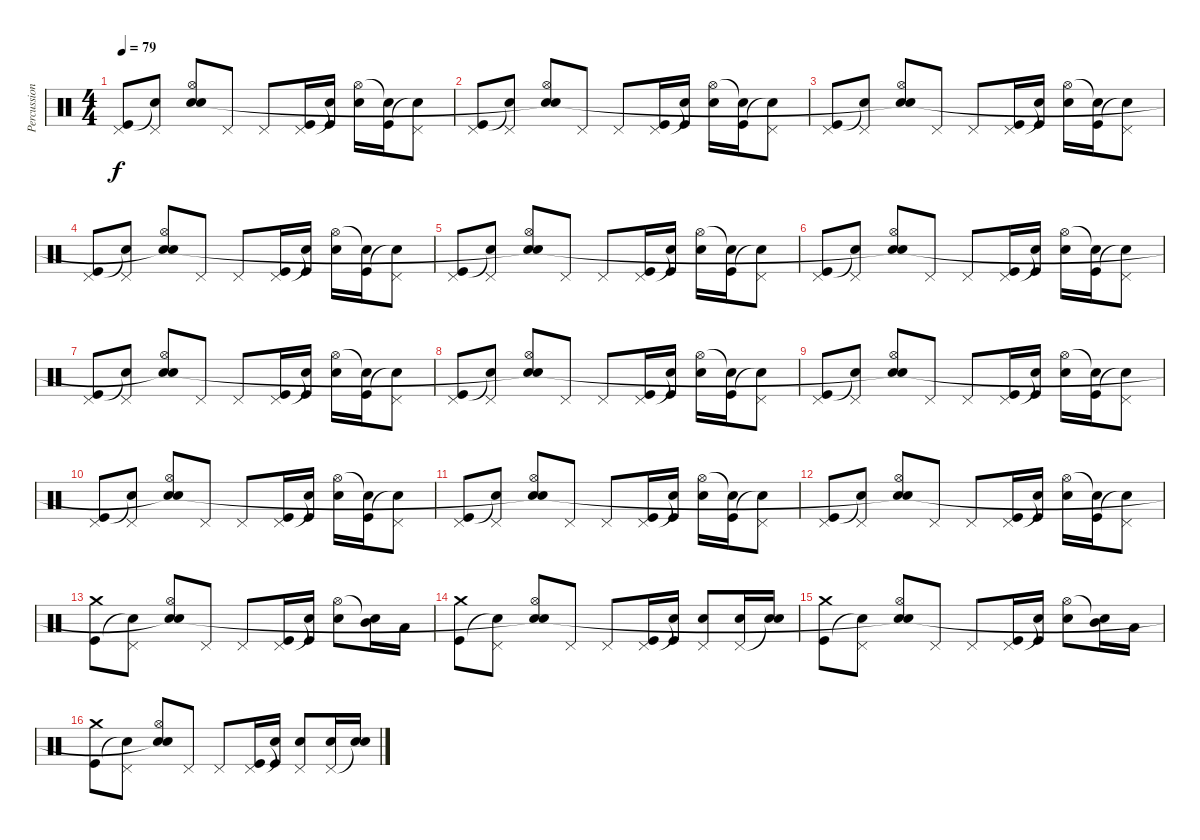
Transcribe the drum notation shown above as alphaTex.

\track ("Percussion" "Percussion") {instrument percussion}
\staff {score}
\articulation defaults
\ts (4 4)
\tempo 79
\clef neutral
\ks c
("Pedal Hi-Hat (hit)" "Kick (hit)").8{dy f} ("Pedal Hi-Hat (hit)" "Snare (hit)"{t}).8 ("Hi-Hat (open)" "Electric Snare (hit)" "Snare (hit)"{t}).8 "Pedal Hi-Hat (hit)".8 "Pedal Hi-Hat (hit)".8 ("Pedal Hi-Hat (hit)" "Kick (hit)").16 ("Snare (hit)"{t} "Kick (hit)").16 ("Hi-Hat (open)" "Electric Snare (hit)").16 ("Snare (hit)"{t} "Kick (hit)").16 ("Pedal Hi-Hat (hit)" "Snare (hit)"{t}).8 |
("Pedal Hi-Hat (hit)" "Kick (hit)").8 ("Pedal Hi-Hat (hit)" "Snare (hit)"{t}).8 ("Hi-Hat (open)" "Electric Snare (hit)" "Snare (hit)"{t}).8 "Pedal Hi-Hat (hit)".8 "Pedal Hi-Hat (hit)".8 ("Pedal Hi-Hat (hit)" "Kick (hit)").16 ("Snare (hit)"{t} "Kick (hit)").16 ("Hi-Hat (open)" "Electric Snare (hit)").16 ("Snare (hit)"{t} "Kick (hit)").16 ("Pedal Hi-Hat (hit)" "Snare (hit)"{t}).8 |
("Pedal Hi-Hat (hit)" "Kick (hit)").8 ("Pedal Hi-Hat (hit)" "Snare (hit)"{t}).8 ("Hi-Hat (open)" "Electric Snare (hit)" "Snare (hit)"{t}).8 "Pedal Hi-Hat (hit)".8 "Pedal Hi-Hat (hit)".8 ("Pedal Hi-Hat (hit)" "Kick (hit)").16 ("Snare (hit)"{t} "Kick (hit)").16 ("Hi-Hat (open)" "Electric Snare (hit)").16 ("Snare (hit)"{t} "Kick (hit)").16 ("Pedal Hi-Hat (hit)" "Snare (hit)"{t}).8 |
("Pedal Hi-Hat (hit)" "Kick (hit)").8 ("Pedal Hi-Hat (hit)" "Snare (hit)"{t}).8 ("Hi-Hat (open)" "Electric Snare (hit)" "Snare (hit)"{t}).8 "Pedal Hi-Hat (hit)".8 "Pedal Hi-Hat (hit)".8 ("Pedal Hi-Hat (hit)" "Kick (hit)").16 ("Snare (hit)"{t} "Kick (hit)").16 ("Hi-Hat (open)" "Electric Snare (hit)").16 ("Snare (hit)"{t} "Kick (hit)").16 ("Pedal Hi-Hat (hit)" "Snare (hit)"{t}).8 |
("Pedal Hi-Hat (hit)" "Kick (hit)").8 ("Pedal Hi-Hat (hit)" "Snare (hit)"{t}).8 ("Hi-Hat (open)" "Electric Snare (hit)" "Snare (hit)"{t}).8 "Pedal Hi-Hat (hit)".8 "Pedal Hi-Hat (hit)".8 ("Pedal Hi-Hat (hit)" "Kick (hit)").16 ("Snare (hit)"{t} "Kick (hit)").16 ("Hi-Hat (open)" "Electric Snare (hit)").16 ("Snare (hit)"{t} "Kick (hit)").16 ("Pedal Hi-Hat (hit)" "Snare (hit)"{t}).8 |
("Pedal Hi-Hat (hit)" "Kick (hit)").8 ("Pedal Hi-Hat (hit)" "Snare (hit)"{t}).8 ("Hi-Hat (open)" "Electric Snare (hit)" "Snare (hit)"{t}).8 "Pedal Hi-Hat (hit)".8 "Pedal Hi-Hat (hit)".8 ("Pedal Hi-Hat (hit)" "Kick (hit)").16 ("Snare (hit)"{t} "Kick (hit)").16 ("Hi-Hat (open)" "Electric Snare (hit)").16 ("Snare (hit)"{t} "Kick (hit)").16 ("Pedal Hi-Hat (hit)" "Snare (hit)"{t}).8 |
("Pedal Hi-Hat (hit)" "Kick (hit)").8 ("Pedal Hi-Hat (hit)" "Snare (hit)"{t}).8 ("Hi-Hat (open)" "Electric Snare (hit)" "Snare (hit)"{t}).8 "Pedal Hi-Hat (hit)".8 "Pedal Hi-Hat (hit)".8 ("Pedal Hi-Hat (hit)" "Kick (hit)").16 ("Snare (hit)"{t} "Kick (hit)").16 ("Hi-Hat (open)" "Electric Snare (hit)").16 ("Snare (hit)"{t} "Kick (hit)").16 ("Pedal Hi-Hat (hit)" "Snare (hit)"{t}).8 |
("Pedal Hi-Hat (hit)" "Kick (hit)").8 ("Pedal Hi-Hat (hit)" "Snare (hit)"{t}).8 ("Hi-Hat (open)" "Electric Snare (hit)" "Snare (hit)"{t}).8 "Pedal Hi-Hat (hit)".8 "Pedal Hi-Hat (hit)".8 ("Pedal Hi-Hat (hit)" "Kick (hit)").16 ("Snare (hit)"{t} "Kick (hit)").16 ("Hi-Hat (open)" "Electric Snare (hit)").16 ("Snare (hit)"{t} "Kick (hit)").16 ("Pedal Hi-Hat (hit)" "Snare (hit)"{t}).8 |
("Pedal Hi-Hat (hit)" "Kick (hit)").8 ("Pedal Hi-Hat (hit)" "Snare (hit)"{t}).8 ("Hi-Hat (open)" "Electric Snare (hit)" "Snare (hit)"{t}).8 "Pedal Hi-Hat (hit)".8 "Pedal Hi-Hat (hit)".8 ("Pedal Hi-Hat (hit)" "Kick (hit)").16 ("Snare (hit)"{t} "Kick (hit)").16 ("Hi-Hat (open)" "Electric Snare (hit)").16 ("Snare (hit)"{t} "Kick (hit)").16 ("Pedal Hi-Hat (hit)" "Snare (hit)"{t}).8 |
("Pedal Hi-Hat (hit)" "Kick (hit)").8 ("Pedal Hi-Hat (hit)" "Snare (hit)"{t}).8 ("Hi-Hat (open)" "Electric Snare (hit)" "Snare (hit)"{t}).8 "Pedal Hi-Hat (hit)".8 "Pedal Hi-Hat (hit)".8 ("Pedal Hi-Hat (hit)" "Kick (hit)").16 ("Snare (hit)"{t} "Kick (hit)").16 ("Hi-Hat (open)" "Electric Snare (hit)").16 ("Snare (hit)"{t} "Kick (hit)").16 ("Pedal Hi-Hat (hit)" "Snare (hit)"{t}).8 |
("Pedal Hi-Hat (hit)" "Kick (hit)").8 ("Pedal Hi-Hat (hit)" "Snare (hit)"{t}).8 ("Hi-Hat (open)" "Electric Snare (hit)" "Snare (hit)"{t}).8 "Pedal Hi-Hat (hit)".8 "Pedal Hi-Hat (hit)".8 ("Pedal Hi-Hat (hit)" "Kick (hit)").16 ("Snare (hit)"{t} "Kick (hit)").16 ("Hi-Hat (open)" "Electric Snare (hit)").16 ("Snare (hit)"{t} "Kick (hit)").16 ("Pedal Hi-Hat (hit)" "Snare (hit)"{t}).8 |
("Pedal Hi-Hat (hit)" "Kick (hit)").8 ("Pedal Hi-Hat (hit)" "Snare (hit)"{t}).8 ("Hi-Hat (open)" "Electric Snare (hit)" "Snare (hit)"{t}).8 "Pedal Hi-Hat (hit)".8 "Pedal Hi-Hat (hit)".8 ("Pedal Hi-Hat (hit)" "Kick (hit)").16 ("Snare (hit)"{t} "Kick (hit)").16 ("Hi-Hat (open)" "Electric Snare (hit)").16 ("Snare (hit)"{t} "Kick (hit)").16 ("Pedal Hi-Hat (hit)" "Snare (hit)"{t}).8 |
("Crash medium (hit)" "Kick (hit)").8 ("Pedal Hi-Hat (hit)" "Snare (hit)"{t}).8 ("Hi-Hat (open)" "Electric Snare (hit)" "Snare (hit)"{t}).8 "Pedal Hi-Hat (hit)".8 "Pedal Hi-Hat (hit)".8 ("Pedal Hi-Hat (hit)" "Kick (hit)").16 ("Snare (hit)"{t} "Kick (hit)").16 ("Hi-Hat (open)" "Electric Snare (hit)").8 ("Snare (hit)"{t} "Mid Tom (hit)").16 "Low Tom (hit)".16 |
("Crash medium (hit)" "Kick (hit)").8 ("Pedal Hi-Hat (hit)" "Snare (hit)"{t}).8 ("Hi-Hat (open)" "Electric Snare (hit)" "Snare (hit)"{t}).8 "Pedal Hi-Hat (hit)".8 "Pedal Hi-Hat (hit)".8 ("Pedal Hi-Hat (hit)" "Kick (hit)").16 ("Snare (hit)"{t} "Kick (hit)").16 ("Pedal Hi-Hat (hit)" "Electric Snare (hit)").8 ("Pedal Hi-Hat (hit)" "Electric Snare (hit)").16 ("Snare (hit)"{t} "Electric Snare (hit)").16 |
("Crash medium (hit)" "Kick (hit)").8 ("Pedal Hi-Hat (hit)" "Snare (hit)"{t}).8 ("Hi-Hat (open)" "Electric Snare (hit)" "Snare (hit)"{t}).8 "Pedal Hi-Hat (hit)".8 "Pedal Hi-Hat (hit)".8 ("Pedal Hi-Hat (hit)" "Kick (hit)").16 ("Snare (hit)"{t} "Kick (hit)").16 ("Hi-Hat (open)" "Electric Snare (hit)").8 ("Snare (hit)"{t} "Mid Tom (hit)").16 "Low Tom (hit)".16 |
("Crash medium (hit)" "Kick (hit)").8 ("Pedal Hi-Hat (hit)" "Snare (hit)"{t}).8 ("Hi-Hat (open)" "Electric Snare (hit)" "Snare (hit)"{t}).8 "Pedal Hi-Hat (hit)".8 "Pedal Hi-Hat (hit)".8 ("Pedal Hi-Hat (hit)" "Kick (hit)").16 ("Snare (hit)"{t} "Kick (hit)").16 ("Pedal Hi-Hat (hit)" "Electric Snare (hit)").8 ("Pedal Hi-Hat (hit)" "Electric Snare (hit)").16 ("Snare (hit)"{t} "Electric Snare (hit)").16
